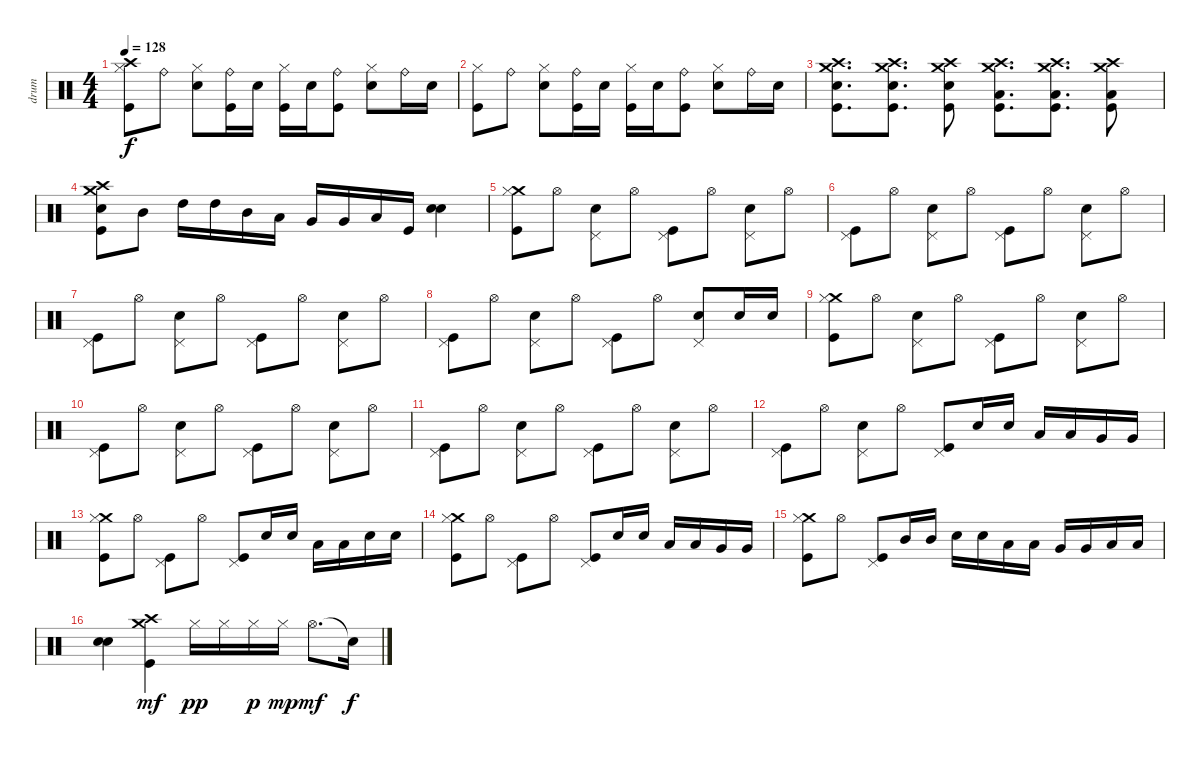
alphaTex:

\track ("drum" "drum") {instrument percussion}
\staff {score}
\articulation defaults
\ts (4 4)
\tempo 128
\clef neutral
\ks c
("Crash high (hit)" "Hi-Hat (closed)" "Kick (hit)").8{dy f} "Ride (bell)".8 ("Hi-Hat (closed)" "Snare (hit) 2").8 ("Ride (bell)" "Kick (hit)").16 "Snare (hit) 2".16 ("Hi-Hat (closed)" "Kick (hit)").16 "Snare (hit) 2".16 ("Ride (bell)" "Kick (hit)").8 ("Hi-Hat (closed)" "Snare (hit) 2").8 "Ride (bell)".16 "Snare (hit) 2".16 |
("Hi-Hat (closed)" "Kick (hit)").8 "Ride (bell)".8 ("Hi-Hat (closed)" "Snare (hit) 2").8 ("Ride (bell)" "Kick (hit)").16 "Snare (hit) 2".16 ("Hi-Hat (closed)" "Kick (hit)").16 "Snare (hit) 2".16 ("Ride (bell)" "Kick (hit)").8 ("Hi-Hat (closed)" "Snare (hit) 2").8 "Ride (bell)".16 "Snare (hit) 2".16 |
("Crash high (hit)" "Crash medium (hit)" "Snare (hit) 2" "Kick (hit)").8{d} ("Crash high (hit)" "Crash medium (hit)" "Snare (hit) 2" "Kick (hit)").8{d} ("Crash high (hit)" "Crash medium (hit)" "Snare (hit) 2" "Kick (hit)").8 ("Crash high (hit)" "Crash medium (hit)" "Low Floor Tom (hit)" "Kick (hit)").8{d} ("Crash high (hit)" "Crash medium (hit)" "Low Floor Tom (hit)" "Kick (hit)").8{d} ("Crash high (hit)" "Crash medium (hit)" "Low Floor Tom (hit)" "Kick (hit)").8 |
("Crash high (hit)" "Crash medium (hit)" "Snare (hit) 2" "Kick (hit)").8 "Mid Tom (hit)".8 "High Tom (hit)".16 "High Tom (hit)".16 "Mid Tom (hit)".16 "Low Tom (hit)".16 "Very Low Tom (hit)".16 "Very Low Tom (hit)".16 "Low Floor Tom (hit)".16 "Kick (hit)".16 ("Snare (hit) 2" "Snare (hit) 2").4{bd 120} |
("Crash medium (hit)" "Hi-Hat (closed)" "Kick (hit)").8 "Hi-Hat (open)".8 ("Pedal Hi-Hat (hit)" "Snare (hit) 2").8 "Hi-Hat (open)".8 ("Pedal Hi-Hat (hit)" "Kick (hit)").8 "Hi-Hat (open)".8 ("Pedal Hi-Hat (hit)" "Snare (hit) 2").8 "Hi-Hat (open)".8 |
("Pedal Hi-Hat (hit)" "Kick (hit)").8 "Hi-Hat (open)".8 ("Pedal Hi-Hat (hit)" "Snare (hit) 2").8 "Hi-Hat (open)".8 ("Pedal Hi-Hat (hit)" "Kick (hit)").8 "Hi-Hat (open)".8 ("Pedal Hi-Hat (hit)" "Snare (hit) 2").8 "Hi-Hat (open)".8 |
("Pedal Hi-Hat (hit)" "Kick (hit)").8 "Hi-Hat (open)".8 ("Pedal Hi-Hat (hit)" "Snare (hit) 2").8 "Hi-Hat (open)".8 ("Pedal Hi-Hat (hit)" "Kick (hit)").8 "Hi-Hat (open)".8 ("Pedal Hi-Hat (hit)" "Snare (hit) 2").8 "Hi-Hat (open)".8 |
("Pedal Hi-Hat (hit)" "Kick (hit)").8 "Hi-Hat (open)".8 ("Pedal Hi-Hat (hit)" "Snare (hit) 2").8 "Hi-Hat (open)".8 ("Pedal Hi-Hat (hit)" "Kick (hit)").8 "Hi-Hat (open)".8 ("Pedal Hi-Hat (hit)" "Snare (hit) 2").8 "Snare (hit) 2".16 "Snare (hit) 2".16 |
("Crash medium (hit)" "Hi-Hat (closed)" "Kick (hit)").8 "Hi-Hat (open)".8 ("Pedal Hi-Hat (hit)" "Snare (hit) 2").8 "Hi-Hat (open)".8 ("Pedal Hi-Hat (hit)" "Kick (hit)").8 "Hi-Hat (open)".8 ("Pedal Hi-Hat (hit)" "Snare (hit) 2").8 "Hi-Hat (open)".8 |
("Pedal Hi-Hat (hit)" "Kick (hit)").8 "Hi-Hat (open)".8 ("Pedal Hi-Hat (hit)" "Snare (hit) 2").8 "Hi-Hat (open)".8 ("Pedal Hi-Hat (hit)" "Kick (hit)").8 "Hi-Hat (open)".8 ("Pedal Hi-Hat (hit)" "Snare (hit) 2").8 "Hi-Hat (open)".8 |
("Pedal Hi-Hat (hit)" "Kick (hit)").8 "Hi-Hat (open)".8 ("Pedal Hi-Hat (hit)" "Snare (hit) 2").8 "Hi-Hat (open)".8 ("Pedal Hi-Hat (hit)" "Kick (hit)").8 "Hi-Hat (open)".8 ("Pedal Hi-Hat (hit)" "Snare (hit) 2").8 "Hi-Hat (open)".8 |
("Pedal Hi-Hat (hit)" "Kick (hit)").8 "Hi-Hat (open)".8 ("Pedal Hi-Hat (hit)" "Snare (hit) 2").8 "Hi-Hat (open)".8 ("Pedal Hi-Hat (hit)" "Kick (hit)").8 "Snare (hit) 2".16 "Snare (hit) 2".16 "Low Tom (hit)".16 "Low Tom (hit)".16 "Very Low Tom (hit)".16 "Very Low Tom (hit)".16 |
("Crash medium (hit)" "Hi-Hat (closed)" "Kick (hit)").8 "Hi-Hat (open)".8 ("Pedal Hi-Hat (hit)" "Kick (hit)").8 "Hi-Hat (open)".8 ("Pedal Hi-Hat (hit)" "Kick (hit)").8 "Snare (hit) 2".16 "Snare (hit) 2".16 "Low Tom (hit)".16 "Low Tom (hit)".16 "Snare (hit) 2".16 "Snare (hit) 2".16 |
("Crash medium (hit)" "Hi-Hat (closed)" "Kick (hit)").8 "Hi-Hat (open)".8 ("Pedal Hi-Hat (hit)" "Kick (hit)").8 "Hi-Hat (open)".8 ("Pedal Hi-Hat (hit)" "Kick (hit)").8 "Snare (hit) 2".16 "Snare (hit) 2".16 "Low Tom (hit)".16 "Low Tom (hit)".16 "Very Low Tom (hit)".16 "Very Low Tom (hit)".16 |
("Crash medium (hit)" "Hi-Hat (closed)" "Kick (hit)").8 "Hi-Hat (open)".8 ("Pedal Hi-Hat (hit)" "Kick (hit)").8 "Mid Tom (hit)".16 "Mid Tom (hit)".16 "Snare (hit) 2".16 "Snare (hit) 2".16 "Low Tom (hit)".16 "Low Tom (hit)".16 "Very Low Tom (hit)".16 "Very Low Tom (hit)".16 "Low Floor Tom (hit)".16 "Low Floor Tom (hit)".16 |
("Snare (hit) 2" "Snare (hit) 2").4{bd 240} ("Crash high (hit)" "Crash medium (hit)" "Kick (hit)").4{dy mf} "Hi-Hat (closed)".16{dy pp} "Hi-Hat (closed)".16 "Hi-Hat (closed)".16{dy p} "Hi-Hat (closed)".16{dy mp} "Hi-Hat (open)".8{d dy mf} "Snare (hit)"{t}.16{dy f}
